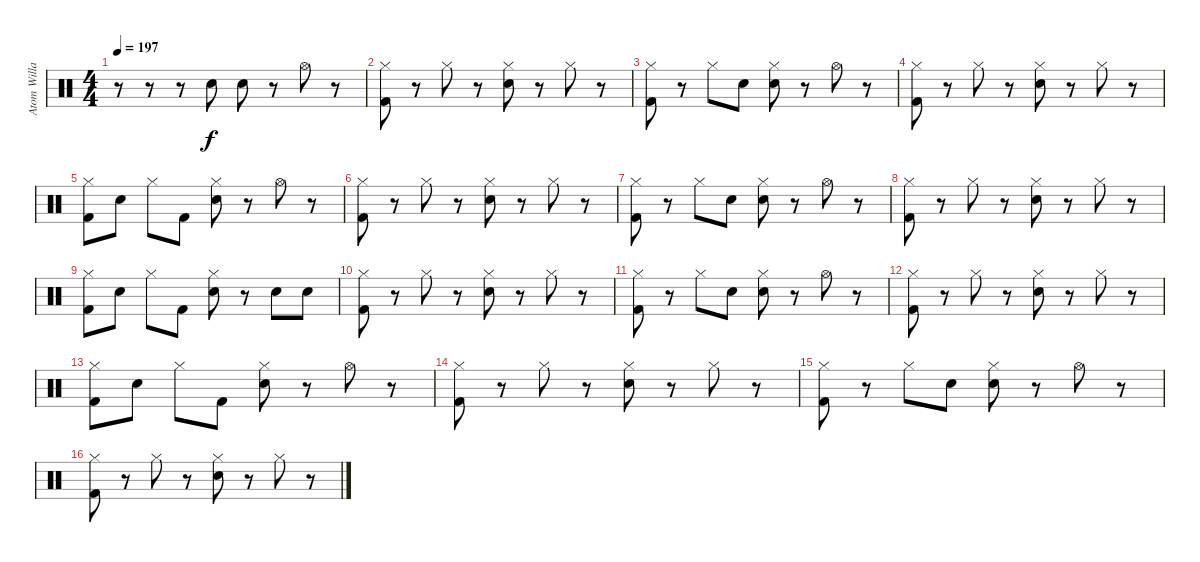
\track ("Atom Willard Drums" "Atom Willa") {instrument percussion}
\staff {score}
\articulation defaults
\ts (4 4)
\tempo 197
\clef neutral
\ks c
r.8{dy f} r.8 r.8 "Electric Snare (hit)".8 "Electric Snare (hit)".8 r.8 "Hi-Hat (open)".8 r.8 |
("Hi-Hat (closed)" "Kick (hit) 2").8 r.8 "Hi-Hat (closed)".8 r.8 ("Hi-Hat (closed)" "Electric Snare (hit)").8 r.8 "Hi-Hat (closed)".8 r.8 |
("Hi-Hat (closed)" "Kick (hit) 2").8 r.8 "Hi-Hat (closed)".8 "Electric Snare (hit)".8 ("Hi-Hat (closed)" "Electric Snare (hit)").8 r.8 "Hi-Hat (open)".8 r.8 |
("Hi-Hat (closed)" "Kick (hit) 2").8 r.8 "Hi-Hat (closed)".8 r.8 ("Hi-Hat (closed)" "Electric Snare (hit)").8 r.8 "Hi-Hat (closed)".8 r.8 |
("Hi-Hat (closed)" "Kick (hit) 2").8 "Electric Snare (hit)".8 "Hi-Hat (closed)".8 "Kick (hit) 2".8 ("Hi-Hat (closed)" "Electric Snare (hit)").8 r.8 "Hi-Hat (open)".8 r.8 |
("Hi-Hat (closed)" "Kick (hit) 2").8 r.8 "Hi-Hat (closed)".8 r.8 ("Hi-Hat (closed)" "Electric Snare (hit)").8 r.8 "Hi-Hat (closed)".8 r.8 |
("Hi-Hat (closed)" "Kick (hit) 2").8 r.8 "Hi-Hat (closed)".8 "Electric Snare (hit)".8 ("Hi-Hat (closed)" "Electric Snare (hit)").8 r.8 "Hi-Hat (open)".8 r.8 |
("Hi-Hat (closed)" "Kick (hit) 2").8 r.8 "Hi-Hat (closed)".8 r.8 ("Hi-Hat (closed)" "Electric Snare (hit)").8 r.8 "Hi-Hat (closed)".8 r.8 |
("Hi-Hat (closed)" "Kick (hit) 2").8 "Electric Snare (hit)".8 "Hi-Hat (closed)".8 "Kick (hit) 2".8 ("Hi-Hat (closed)" "Electric Snare (hit)").8 r.8 "Electric Snare (hit)".8 "Electric Snare (hit)".8 |
("Hi-Hat (closed)" "Kick (hit) 2").8 r.8 "Hi-Hat (closed)".8 r.8 ("Hi-Hat (closed)" "Electric Snare (hit)").8 r.8 "Hi-Hat (closed)".8 r.8 |
("Hi-Hat (closed)" "Kick (hit) 2").8 r.8 "Hi-Hat (closed)".8 "Electric Snare (hit)".8 ("Hi-Hat (closed)" "Electric Snare (hit)").8 r.8 "Hi-Hat (open)".8 r.8 |
("Hi-Hat (closed)" "Kick (hit) 2").8 r.8 "Hi-Hat (closed)".8 r.8 ("Hi-Hat (closed)" "Electric Snare (hit)").8 r.8 "Hi-Hat (closed)".8 r.8 |
("Hi-Hat (closed)" "Kick (hit) 2").8 "Electric Snare (hit)".8 "Hi-Hat (closed)".8 "Kick (hit) 2".8 ("Hi-Hat (closed)" "Electric Snare (hit)").8 r.8 "Hi-Hat (open)".8 r.8 |
("Hi-Hat (closed)" "Kick (hit) 2").8 r.8 "Hi-Hat (closed)".8 r.8 ("Hi-Hat (closed)" "Electric Snare (hit)").8 r.8 "Hi-Hat (closed)".8 r.8 |
("Hi-Hat (closed)" "Kick (hit) 2").8 r.8 "Hi-Hat (closed)".8 "Electric Snare (hit)".8 ("Hi-Hat (closed)" "Electric Snare (hit)").8 r.8 "Hi-Hat (open)".8 r.8 |
("Hi-Hat (closed)" "Kick (hit) 2").8 r.8 "Hi-Hat (closed)".8 r.8 ("Hi-Hat (closed)" "Electric Snare (hit)").8 r.8 "Hi-Hat (closed)".8 r.8
